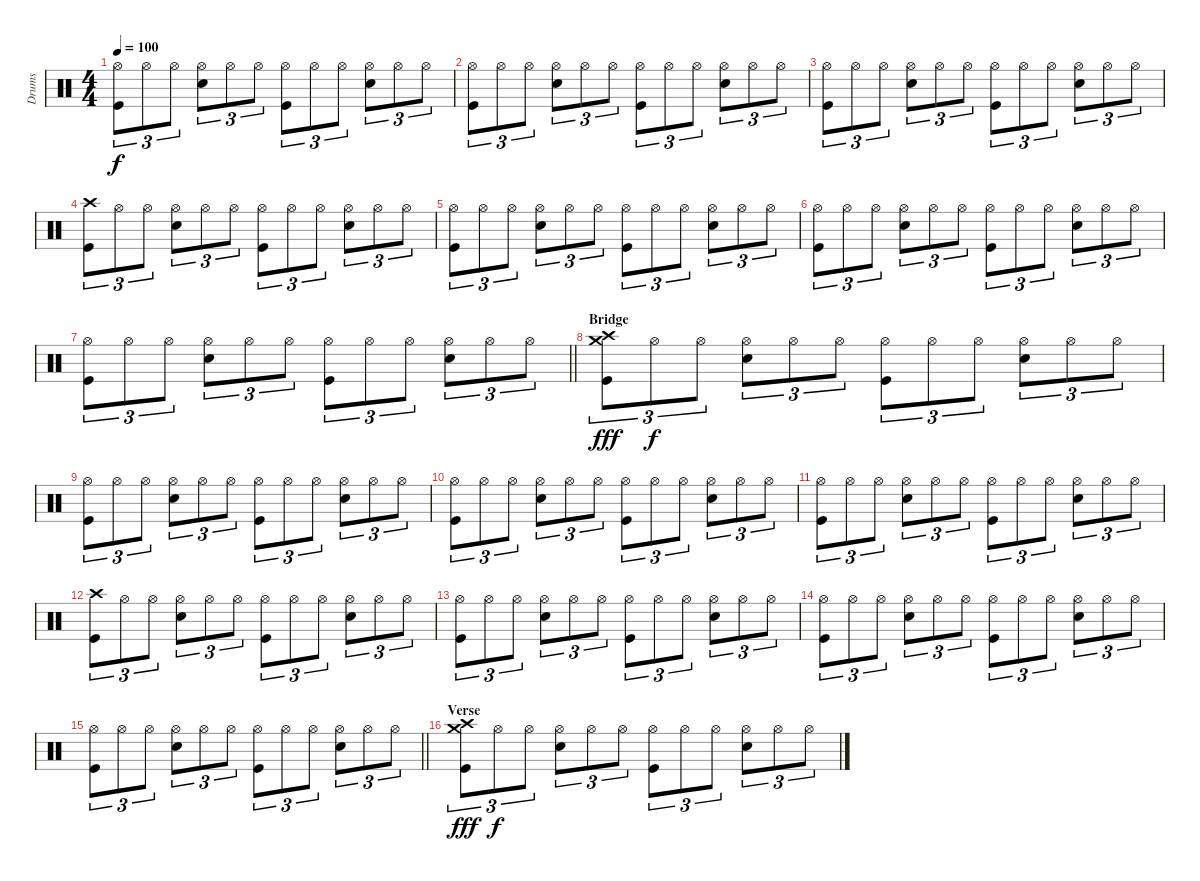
\track ("Drums" "Drums") {instrument percussion}
\staff {score}
\articulation defaults
\ts (4 4)
\tempo 100
\clef neutral
\ks c
("Hi-Hat (open)" "Kick (hit)").8{tu (3 2) dy f} "Hi-Hat (open)".8{tu (3 2)} "Hi-Hat (open)".8{tu (3 2)} ("Hi-Hat (open)" "Snare (hit) 2").8{tu (3 2)} "Hi-Hat (open)".8{tu (3 2)} "Hi-Hat (open)".8{tu (3 2)} ("Hi-Hat (open)" "Kick (hit)").8{tu (3 2)} "Hi-Hat (open)".8{tu (3 2)} "Hi-Hat (open)".8{tu (3 2)} ("Hi-Hat (open)" "Snare (hit) 2").8{tu (3 2)} "Hi-Hat (open)".8{tu (3 2)} "Hi-Hat (open)".8{tu (3 2)} |
("Hi-Hat (open)" "Kick (hit)").8{tu (3 2)} "Hi-Hat (open)".8{tu (3 2)} "Hi-Hat (open)".8{tu (3 2)} ("Hi-Hat (open)" "Snare (hit) 2").8{tu (3 2)} "Hi-Hat (open)".8{tu (3 2)} "Hi-Hat (open)".8{tu (3 2)} ("Hi-Hat (open)" "Kick (hit)").8{tu (3 2)} "Hi-Hat (open)".8{tu (3 2)} "Hi-Hat (open)".8{tu (3 2)} ("Hi-Hat (open)" "Snare (hit) 2").8{tu (3 2)} "Hi-Hat (open)".8{tu (3 2)} "Hi-Hat (open)".8{tu (3 2)} |
("Hi-Hat (open)" "Kick (hit)").8{tu (3 2)} "Hi-Hat (open)".8{tu (3 2)} "Hi-Hat (open)".8{tu (3 2)} ("Hi-Hat (open)" "Snare (hit) 2").8{tu (3 2)} "Hi-Hat (open)".8{tu (3 2)} "Hi-Hat (open)".8{tu (3 2)} ("Hi-Hat (open)" "Kick (hit)").8{tu (3 2)} "Hi-Hat (open)".8{tu (3 2)} "Hi-Hat (open)".8{tu (3 2)} ("Hi-Hat (open)" "Snare (hit) 2").8{tu (3 2)} "Hi-Hat (open)".8{tu (3 2)} "Hi-Hat (open)".8{tu (3 2)} |
("Crash high (hit)" "Kick (hit)").8{tu (3 2)} "Hi-Hat (open)".8{tu (3 2)} "Hi-Hat (open)".8{tu (3 2)} ("Hi-Hat (open)" "Snare (hit) 2").8{tu (3 2)} "Hi-Hat (open)".8{tu (3 2)} "Hi-Hat (open)".8{tu (3 2)} ("Hi-Hat (open)" "Kick (hit)").8{tu (3 2)} "Hi-Hat (open)".8{tu (3 2)} "Hi-Hat (open)".8{tu (3 2)} ("Hi-Hat (open)" "Snare (hit) 2").8{tu (3 2)} "Hi-Hat (open)".8{tu (3 2)} "Hi-Hat (open)".8{tu (3 2)} |
("Hi-Hat (open)" "Kick (hit)").8{tu (3 2)} "Hi-Hat (open)".8{tu (3 2)} "Hi-Hat (open)".8{tu (3 2)} ("Hi-Hat (open)" "Snare (hit) 2").8{tu (3 2)} "Hi-Hat (open)".8{tu (3 2)} "Hi-Hat (open)".8{tu (3 2)} ("Hi-Hat (open)" "Kick (hit)").8{tu (3 2)} "Hi-Hat (open)".8{tu (3 2)} "Hi-Hat (open)".8{tu (3 2)} ("Hi-Hat (open)" "Snare (hit) 2").8{tu (3 2)} "Hi-Hat (open)".8{tu (3 2)} "Hi-Hat (open)".8{tu (3 2)} |
("Hi-Hat (open)" "Kick (hit)").8{tu (3 2)} "Hi-Hat (open)".8{tu (3 2)} "Hi-Hat (open)".8{tu (3 2)} ("Hi-Hat (open)" "Snare (hit) 2").8{tu (3 2)} "Hi-Hat (open)".8{tu (3 2)} "Hi-Hat (open)".8{tu (3 2)} ("Hi-Hat (open)" "Kick (hit)").8{tu (3 2)} "Hi-Hat (open)".8{tu (3 2)} "Hi-Hat (open)".8{tu (3 2)} ("Hi-Hat (open)" "Snare (hit) 2").8{tu (3 2)} "Hi-Hat (open)".8{tu (3 2)} "Hi-Hat (open)".8{tu (3 2)} |
\barLineRight lightlight
("Hi-Hat (open)" "Kick (hit)").8{tu (3 2)} "Hi-Hat (open)".8{tu (3 2)} "Hi-Hat (open)".8{tu (3 2)} ("Hi-Hat (open)" "Snare (hit) 2").8{tu (3 2)} "Hi-Hat (open)".8{tu (3 2)} "Hi-Hat (open)".8{tu (3 2)} ("Hi-Hat (open)" "Kick (hit)").8{tu (3 2)} "Hi-Hat (open)".8{tu (3 2)} "Hi-Hat (open)".8{tu (3 2)} ("Hi-Hat (open)" "Snare (hit) 2").8{tu (3 2)} "Hi-Hat (open)".8{tu (3 2)} "Hi-Hat (open)".8{tu (3 2)} |
\section ("" "Bridge")
("Crash high (hit)" "Crash medium (hit)" "Kick (hit)").8{tu (3 2) dy fff} "Hi-Hat (open)".8{tu (3 2) dy f} "Hi-Hat (open)".8{tu (3 2)} ("Hi-Hat (open)" "Snare (hit) 2").8{tu (3 2)} "Hi-Hat (open)".8{tu (3 2)} "Hi-Hat (open)".8{tu (3 2)} ("Hi-Hat (open)" "Kick (hit)").8{tu (3 2)} "Hi-Hat (open)".8{tu (3 2)} "Hi-Hat (open)".8{tu (3 2)} ("Hi-Hat (open)" "Snare (hit) 2").8{tu (3 2)} "Hi-Hat (open)".8{tu (3 2)} "Hi-Hat (open)".8{tu (3 2)} |
("Hi-Hat (open)" "Kick (hit)").8{tu (3 2)} "Hi-Hat (open)".8{tu (3 2)} "Hi-Hat (open)".8{tu (3 2)} ("Hi-Hat (open)" "Snare (hit) 2").8{tu (3 2)} "Hi-Hat (open)".8{tu (3 2)} "Hi-Hat (open)".8{tu (3 2)} ("Hi-Hat (open)" "Kick (hit)").8{tu (3 2)} "Hi-Hat (open)".8{tu (3 2)} "Hi-Hat (open)".8{tu (3 2)} ("Hi-Hat (open)" "Snare (hit) 2").8{tu (3 2)} "Hi-Hat (open)".8{tu (3 2)} "Hi-Hat (open)".8{tu (3 2)} |
("Hi-Hat (open)" "Kick (hit)").8{tu (3 2)} "Hi-Hat (open)".8{tu (3 2)} "Hi-Hat (open)".8{tu (3 2)} ("Hi-Hat (open)" "Snare (hit) 2").8{tu (3 2)} "Hi-Hat (open)".8{tu (3 2)} "Hi-Hat (open)".8{tu (3 2)} ("Hi-Hat (open)" "Kick (hit)").8{tu (3 2)} "Hi-Hat (open)".8{tu (3 2)} "Hi-Hat (open)".8{tu (3 2)} ("Hi-Hat (open)" "Snare (hit) 2").8{tu (3 2)} "Hi-Hat (open)".8{tu (3 2)} "Hi-Hat (open)".8{tu (3 2)} |
("Hi-Hat (open)" "Kick (hit)").8{tu (3 2)} "Hi-Hat (open)".8{tu (3 2)} "Hi-Hat (open)".8{tu (3 2)} ("Hi-Hat (open)" "Snare (hit) 2").8{tu (3 2)} "Hi-Hat (open)".8{tu (3 2)} "Hi-Hat (open)".8{tu (3 2)} ("Hi-Hat (open)" "Kick (hit)").8{tu (3 2)} "Hi-Hat (open)".8{tu (3 2)} "Hi-Hat (open)".8{tu (3 2)} ("Hi-Hat (open)" "Snare (hit) 2").8{tu (3 2)} "Hi-Hat (open)".8{tu (3 2)} "Hi-Hat (open)".8{tu (3 2)} |
("Crash high (hit)" "Kick (hit)").8{tu (3 2)} "Hi-Hat (open)".8{tu (3 2)} "Hi-Hat (open)".8{tu (3 2)} ("Hi-Hat (open)" "Snare (hit) 2").8{tu (3 2)} "Hi-Hat (open)".8{tu (3 2)} "Hi-Hat (open)".8{tu (3 2)} ("Hi-Hat (open)" "Kick (hit)").8{tu (3 2)} "Hi-Hat (open)".8{tu (3 2)} "Hi-Hat (open)".8{tu (3 2)} ("Hi-Hat (open)" "Snare (hit) 2").8{tu (3 2)} "Hi-Hat (open)".8{tu (3 2)} "Hi-Hat (open)".8{tu (3 2)} |
("Hi-Hat (open)" "Kick (hit)").8{tu (3 2)} "Hi-Hat (open)".8{tu (3 2)} "Hi-Hat (open)".8{tu (3 2)} ("Hi-Hat (open)" "Snare (hit) 2").8{tu (3 2)} "Hi-Hat (open)".8{tu (3 2)} "Hi-Hat (open)".8{tu (3 2)} ("Hi-Hat (open)" "Kick (hit)").8{tu (3 2)} "Hi-Hat (open)".8{tu (3 2)} "Hi-Hat (open)".8{tu (3 2)} ("Hi-Hat (open)" "Snare (hit) 2").8{tu (3 2)} "Hi-Hat (open)".8{tu (3 2)} "Hi-Hat (open)".8{tu (3 2)} |
("Hi-Hat (open)" "Kick (hit)").8{tu (3 2)} "Hi-Hat (open)".8{tu (3 2)} "Hi-Hat (open)".8{tu (3 2)} ("Hi-Hat (open)" "Snare (hit) 2").8{tu (3 2)} "Hi-Hat (open)".8{tu (3 2)} "Hi-Hat (open)".8{tu (3 2)} ("Hi-Hat (open)" "Kick (hit)").8{tu (3 2)} "Hi-Hat (open)".8{tu (3 2)} "Hi-Hat (open)".8{tu (3 2)} ("Hi-Hat (open)" "Snare (hit) 2").8{tu (3 2)} "Hi-Hat (open)".8{tu (3 2)} "Hi-Hat (open)".8{tu (3 2)} |
\barLineRight lightlight
("Hi-Hat (open)" "Kick (hit)").8{tu (3 2)} "Hi-Hat (open)".8{tu (3 2)} "Hi-Hat (open)".8{tu (3 2)} ("Hi-Hat (open)" "Snare (hit) 2").8{tu (3 2)} "Hi-Hat (open)".8{tu (3 2)} "Hi-Hat (open)".8{tu (3 2)} ("Hi-Hat (open)" "Kick (hit)").8{tu (3 2)} "Hi-Hat (open)".8{tu (3 2)} "Hi-Hat (open)".8{tu (3 2)} ("Hi-Hat (open)" "Snare (hit) 2").8{tu (3 2)} "Hi-Hat (open)".8{tu (3 2)} "Hi-Hat (open)".8{tu (3 2)} |
\section ("" "Verse")
("Crash high (hit)" "Crash medium (hit)" "Kick (hit)").8{tu (3 2) dy fff} "Hi-Hat (open)".8{tu (3 2) dy f} "Hi-Hat (open)".8{tu (3 2)} ("Hi-Hat (open)" "Snare (hit) 2").8{tu (3 2)} "Hi-Hat (open)".8{tu (3 2)} "Hi-Hat (open)".8{tu (3 2)} ("Hi-Hat (open)" "Kick (hit)").8{tu (3 2)} "Hi-Hat (open)".8{tu (3 2)} "Hi-Hat (open)".8{tu (3 2)} ("Hi-Hat (open)" "Snare (hit) 2").8{tu (3 2)} "Hi-Hat (open)".8{tu (3 2)} "Hi-Hat (open)".8{tu (3 2)}
